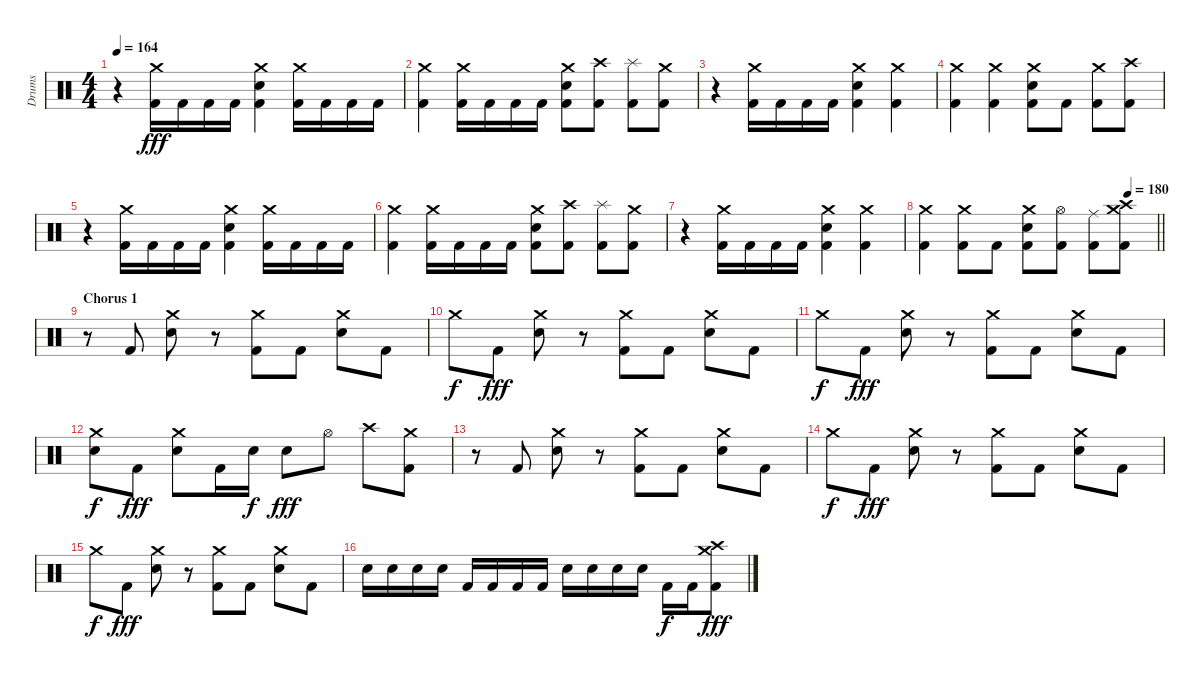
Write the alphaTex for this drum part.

\track ("Drums" "Drums") {instrument percussion}
\staff {score}
\articulation defaults
\ts (4 4)
\tempo 164
\clef neutral
\ks c
r.4{dy fff} ("Crash medium (hit)" "Kick (hit) 2").16 "Kick (hit) 2".16 "Kick (hit) 2".16 "Kick (hit) 2".16 ("Crash medium (hit)" "Electric Snare (hit)" "Kick (hit) 2").4 ("Crash medium (hit)" "Kick (hit) 2").16 "Kick (hit) 2".16 "Kick (hit) 2".16 "Kick (hit) 2".16 |
("Crash medium (hit)" "Kick (hit) 2").4 ("Crash medium (hit)" "Kick (hit) 2").16 "Kick (hit) 2".16 "Kick (hit) 2".16 "Kick (hit) 2".16 ("Crash medium (hit)" "Electric Snare (hit)" "Kick (hit) 2").8 ("Crash high (hit)" "Kick (hit) 2").8 ("Splash (hit)" "Kick (hit) 2").8 ("Crash medium (hit)" "Kick (hit) 2").8 |
r.4 ("Crash medium (hit)" "Kick (hit) 2").16 "Kick (hit) 2".16 "Kick (hit) 2".16 "Kick (hit) 2".16 ("Crash medium (hit)" "Electric Snare (hit)" "Kick (hit) 2").4 ("Crash medium (hit)" "Kick (hit) 2").4 |
("Crash medium (hit)" "Kick (hit) 2").4 ("Crash medium (hit)" "Kick (hit) 2").4 ("Crash medium (hit)" "Electric Snare (hit)" "Kick (hit) 2").8 "Kick (hit) 2".8 ("Crash medium (hit)" "Kick (hit) 2").8 ("Crash high (hit)" "Kick (hit) 2").8 |
r.4 ("Crash medium (hit)" "Kick (hit) 2").16 "Kick (hit) 2".16 "Kick (hit) 2".16 "Kick (hit) 2".16 ("Crash medium (hit)" "Electric Snare (hit)" "Kick (hit) 2").4 ("Crash medium (hit)" "Kick (hit) 2").16 "Kick (hit) 2".16 "Kick (hit) 2".16 "Kick (hit) 2".16 |
("Crash medium (hit)" "Kick (hit) 2").4 ("Crash medium (hit)" "Kick (hit) 2").16 "Kick (hit) 2".16 "Kick (hit) 2".16 "Kick (hit) 2".16 ("Crash medium (hit)" "Electric Snare (hit)" "Kick (hit) 2").8 ("Crash high (hit)" "Kick (hit) 2").8 ("Splash (hit)" "Kick (hit) 2").8 ("Crash medium (hit)" "Kick (hit) 2").8 |
r.4 ("Crash medium (hit)" "Kick (hit) 2").16 "Kick (hit) 2".16 "Kick (hit) 2".16 "Kick (hit) 2".16 ("Crash medium (hit)" "Electric Snare (hit)" "Kick (hit) 2").4 ("Crash medium (hit)" "Kick (hit) 2").4 |
\tempo (180 0.875)
\barLineRight lightlight
("Crash medium (hit)" "Kick (hit) 2").4 ("Crash medium (hit)" "Kick (hit) 2").8 "Kick (hit) 2".8 ("Crash medium (hit)" "Electric Snare (hit)" "Kick (hit) 2").8 ("Hi-Hat (open)" "Kick (hit) 2").8 ("Ride (middle)" "Kick (hit) 2").8 ("Crash medium (hit)" "Crash high (hit)" "Kick (hit) 2").8 |
\section ("" "Chorus 1")
r.8 "Kick (hit) 2".8 ("Crash medium (hit)" "Electric Snare (hit)").8 r.8 ("Crash medium (hit)" "Kick (hit) 2").8 "Kick (hit) 2".8 ("Crash medium (hit)" "Electric Snare (hit)").8 "Kick (hit) 2".8 |
"Crash medium (hit)".8{dy f} "Kick (hit) 2".8{dy fff} ("Crash medium (hit)" "Electric Snare (hit)").8 r.8 ("Crash medium (hit)" "Kick (hit) 2").8 "Kick (hit) 2".8 ("Crash medium (hit)" "Electric Snare (hit)").8 "Kick (hit) 2".8 |
"Crash medium (hit)".8{dy f} "Kick (hit) 2".8{dy fff} ("Crash medium (hit)" "Electric Snare (hit)").8 r.8 ("Crash medium (hit)" "Kick (hit) 2").8 "Kick (hit) 2".8 ("Crash medium (hit)" "Electric Snare (hit)").8 "Kick (hit) 2".8 |
("Crash medium (hit)" "Electric Snare (hit)").8{dy f} "Kick (hit) 2".8{dy fff} ("Crash medium (hit)" "Electric Snare (hit)").8 "Kick (hit) 2".16 "Electric Snare (hit)".16{dy f} "Electric Snare (hit)".8{dy fff} "Hi-Hat (open)".8 "Crash high (hit)".8 ("Crash medium (hit)" "Kick (hit) 2").8 |
r.8 "Kick (hit) 2".8 ("Crash medium (hit)" "Electric Snare (hit)").8 r.8 ("Crash medium (hit)" "Kick (hit) 2").8 "Kick (hit) 2".8 ("Crash medium (hit)" "Electric Snare (hit)").8 "Kick (hit) 2".8 |
"Crash medium (hit)".8{dy f} "Kick (hit) 2".8{dy fff} ("Crash medium (hit)" "Electric Snare (hit)").8 r.8 ("Crash medium (hit)" "Kick (hit) 2").8 "Kick (hit) 2".8 ("Crash medium (hit)" "Electric Snare (hit)").8 "Kick (hit) 2".8 |
"Crash medium (hit)".8{dy f} "Kick (hit) 2".8{dy fff} ("Crash medium (hit)" "Electric Snare (hit)").8 r.8 ("Crash medium (hit)" "Kick (hit) 2").8 "Kick (hit) 2".8 ("Crash medium (hit)" "Electric Snare (hit)").8 "Kick (hit) 2".8 |
"Electric Snare (hit)".16 "Electric Snare (hit)".16 "Electric Snare (hit)".16 "Electric Snare (hit)".16 "Kick (hit) 2".16 "Kick (hit) 2".16 "Kick (hit) 2".16 "Kick (hit) 2".16 "Electric Snare (hit)".16 "Electric Snare (hit)".16 "Electric Snare (hit)".16 "Electric Snare (hit)".16 "Kick (hit) 2".16{dy f} "Kick (hit) 2".16 ("Crash medium (hit)" "Crash high (hit)" "Kick (hit) 2").8{dy fff}
